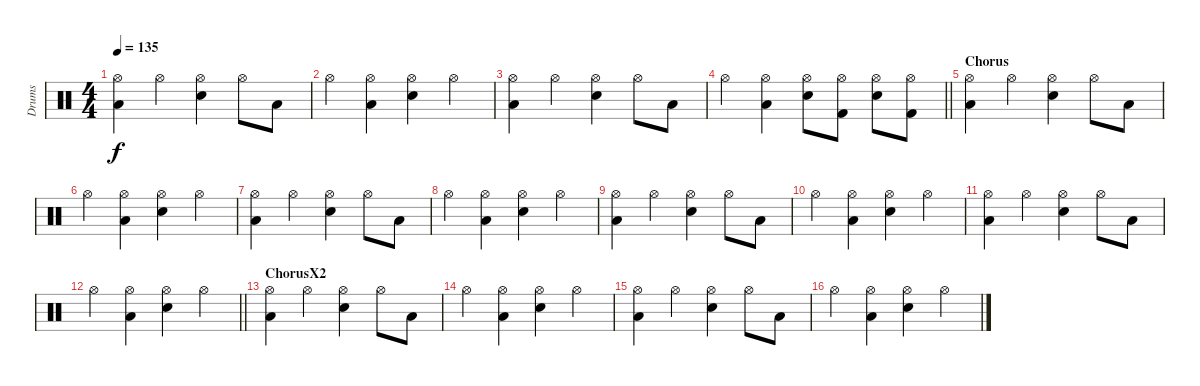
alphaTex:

\track ("Drums" "Drums") {instrument percussion}
\staff {score}
\articulation defaults
\ts (4 4)
\tempo 135
\clef neutral
\ks c
("Hi-Hat (open)" "Low Tom (hit)").4{dy f} "Hi-Hat (open)".4 ("Hi-Hat (open)" "Electric Snare (hit)").4 "Hi-Hat (open)".8 "Low Tom (hit)".8 |
"Hi-Hat (open)".4 ("Hi-Hat (open)" "Low Tom (hit)").4 ("Hi-Hat (open)" "Electric Snare (hit)").4 "Hi-Hat (open)".4 |
("Hi-Hat (open)" "Low Tom (hit)").4 "Hi-Hat (open)".4 ("Hi-Hat (open)" "Electric Snare (hit)").4 "Hi-Hat (open)".8 "Low Tom (hit)".8 |
\barLineRight lightlight "Hi-Hat (open)".4
("Hi-Hat (open)" "Low Tom (hit)").4 ("Hi-Hat (open)" "Electric Snare (hit)").8 ("Hi-Hat (open)" "Kick (hit) 2").8 ("Hi-Hat (open)" "Electric Snare (hit)").8 ("Hi-Hat (open)" "Kick (hit) 2").8 |
\section ("" "Chorus")
("Hi-Hat (open)" "Low Tom (hit)").4 "Hi-Hat (open)".4 ("Hi-Hat (open)" "Electric Snare (hit)").4 "Hi-Hat (open)".8 "Low Tom (hit)".8 |
"Hi-Hat (open)".4 ("Hi-Hat (open)" "Low Tom (hit)").4 ("Hi-Hat (open)" "Electric Snare (hit)").4 "Hi-Hat (open)".4 |
("Hi-Hat (open)" "Low Tom (hit)").4 "Hi-Hat (open)".4 ("Hi-Hat (open)" "Electric Snare (hit)").4 "Hi-Hat (open)".8 "Low Tom (hit)".8 |
"Hi-Hat (open)".4 ("Hi-Hat (open)" "Low Tom (hit)").4 ("Hi-Hat (open)" "Electric Snare (hit)").4 "Hi-Hat (open)".4 |
("Hi-Hat (open)" "Low Tom (hit)").4 "Hi-Hat (open)".4 ("Hi-Hat (open)" "Electric Snare (hit)").4 "Hi-Hat (open)".8 "Low Tom (hit)".8 |
"Hi-Hat (open)".4 ("Hi-Hat (open)" "Low Tom (hit)").4 ("Hi-Hat (open)" "Electric Snare (hit)").4 "Hi-Hat (open)".4 |
("Hi-Hat (open)" "Low Tom (hit)").4 "Hi-Hat (open)".4 ("Hi-Hat (open)" "Electric Snare (hit)").4 "Hi-Hat (open)".8 "Low Tom (hit)".8 |
\barLineRight lightlight "Hi-Hat (open)".4
("Hi-Hat (open)" "Low Tom (hit)").4 ("Hi-Hat (open)" "Electric Snare (hit)").4 "Hi-Hat (open)".4 |
\section ("" "ChorusX2")
("Hi-Hat (open)" "Low Tom (hit)").4 "Hi-Hat (open)".4 ("Hi-Hat (open)" "Electric Snare (hit)").4 "Hi-Hat (open)".8 "Low Tom (hit)".8 |
"Hi-Hat (open)".4 ("Hi-Hat (open)" "Low Tom (hit)").4 ("Hi-Hat (open)" "Electric Snare (hit)").4 "Hi-Hat (open)".4 |
("Hi-Hat (open)" "Low Tom (hit)").4 "Hi-Hat (open)".4 ("Hi-Hat (open)" "Electric Snare (hit)").4 "Hi-Hat (open)".8 "Low Tom (hit)".8 |
"Hi-Hat (open)".4 ("Hi-Hat (open)" "Low Tom (hit)").4 ("Hi-Hat (open)" "Electric Snare (hit)").4 "Hi-Hat (open)".4
